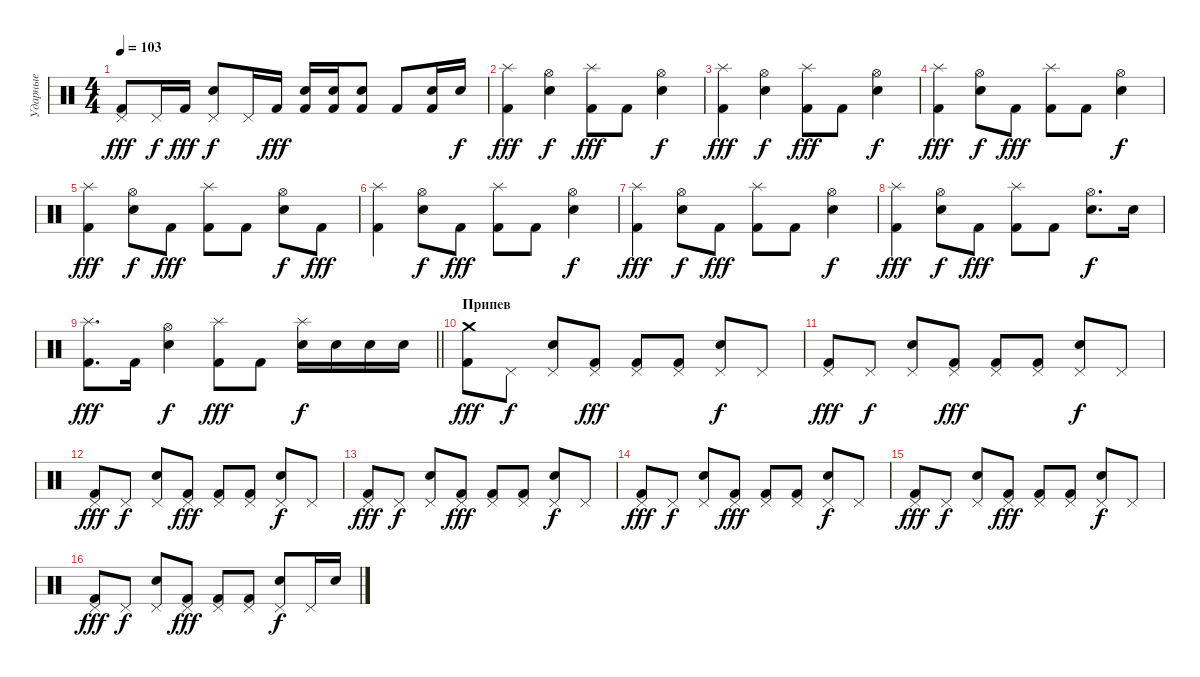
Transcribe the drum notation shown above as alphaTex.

\track ("Ударные" "Ударные") {instrument percussion}
\staff {score}
\articulation defaults
\ts (4 4)
\tempo 103
\clef neutral
\ks c
("Pedal Hi-Hat (hit)" "Kick (hit) 2").8{dy fff} "Pedal Hi-Hat (hit)".16{dy f} "Kick (hit) 2".16{dy fff} ("Pedal Hi-Hat (hit)" "Electric Snare (hit)").8{dy f} "Pedal Hi-Hat (hit)".16 "Kick (hit) 2".16{dy fff} ("Electric Snare (hit)" "Kick (hit) 2").16 ("Electric Snare (hit)" "Kick (hit) 2").16 ("Electric Snare (hit)" "Kick (hit) 2").8 "Kick (hit) 2".8 ("Electric Snare (hit)" "Kick (hit) 2").16 "Electric Snare (hit)".16{dy f} |
("Splash (hit)" "Kick (hit) 2").4{dy fff} ("Hi-Hat (open)" "Electric Snare (hit)").4{dy f} ("Splash (hit)" "Kick (hit) 2").8{dy fff} "Kick (hit) 2".8 ("Hi-Hat (open)" "Electric Snare (hit)").4{dy f} |
("Splash (hit)" "Kick (hit) 2").4{dy fff} ("Hi-Hat (open)" "Electric Snare (hit)").4{dy f} ("Splash (hit)" "Kick (hit) 2").8{dy fff} "Kick (hit) 2".8 ("Hi-Hat (open)" "Electric Snare (hit)").4{dy f} |
("Splash (hit)" "Kick (hit) 2").4{dy fff} ("Hi-Hat (open)" "Electric Snare (hit)").8{dy f} "Kick (hit) 2".8{dy fff} ("Splash (hit)" "Kick (hit) 2").8 "Kick (hit) 2".8 ("Hi-Hat (open)" "Electric Snare (hit)").4{dy f} |
("Splash (hit)" "Kick (hit) 2").4{dy fff} ("Hi-Hat (open)" "Electric Snare (hit)").8{dy f} "Kick (hit) 2".8{dy fff} ("Splash (hit)" "Kick (hit) 2").8 "Kick (hit) 2".8 ("Hi-Hat (open)" "Electric Snare (hit)").8{dy f} "Kick (hit) 2".8{dy fff} |
("Splash (hit)" "Kick (hit) 2").4 ("Hi-Hat (open)" "Electric Snare (hit)").8{dy f} "Kick (hit) 2".8{dy fff} ("Splash (hit)" "Kick (hit) 2").8 "Kick (hit) 2".8 ("Hi-Hat (open)" "Electric Snare (hit)").4{dy f} |
("Splash (hit)" "Kick (hit) 2").4{dy fff} ("Hi-Hat (open)" "Electric Snare (hit)").8{dy f} "Kick (hit) 2".8{dy fff} ("Splash (hit)" "Kick (hit) 2").8 "Kick (hit) 2".8 ("Hi-Hat (open)" "Electric Snare (hit)").4{dy f} |
("Splash (hit)" "Kick (hit) 2").4{dy fff} ("Hi-Hat (open)" "Electric Snare (hit)").8{dy f} "Kick (hit) 2".8{dy fff} ("Splash (hit)" "Kick (hit) 2").8 "Kick (hit) 2".8 ("Hi-Hat (open)" "Electric Snare (hit)").8{d dy f} "Electric Snare (hit)".16 |
\barLineRight lightlight
("Splash (hit)" "Kick (hit) 2").8{d dy fff} "Kick (hit) 2".16 ("Hi-Hat (open)" "Electric Snare (hit)").4{dy f} ("Splash (hit)" "Kick (hit) 2").8{dy fff} "Kick (hit) 2".8 ("Splash (hit)" "Electric Snare (hit)").16{dy f} "Electric Snare (hit)".16 "Electric Snare (hit)".16 "Electric Snare (hit)".16 |
\section ("" "Припев")
("Crash medium (hit)" "Kick (hit) 2").8{dy fff} "Pedal Hi-Hat (hit)".8{dy f} ("Pedal Hi-Hat (hit)" "Electric Snare (hit)").8 ("Pedal Hi-Hat (hit)" "Kick (hit) 2").8{dy fff} ("Pedal Hi-Hat (hit)" "Kick (hit) 2").8 ("Pedal Hi-Hat (hit)" "Kick (hit) 2").8 ("Pedal Hi-Hat (hit)" "Electric Snare (hit)").8{dy f} "Pedal Hi-Hat (hit)".8 |
("Pedal Hi-Hat (hit)" "Kick (hit) 2").8{dy fff} "Pedal Hi-Hat (hit)".8{dy f} ("Pedal Hi-Hat (hit)" "Electric Snare (hit)").8 ("Pedal Hi-Hat (hit)" "Kick (hit) 2").8{dy fff} ("Pedal Hi-Hat (hit)" "Kick (hit) 2").8 ("Pedal Hi-Hat (hit)" "Kick (hit) 2").8 ("Pedal Hi-Hat (hit)" "Electric Snare (hit)").8{dy f} "Pedal Hi-Hat (hit)".8 |
("Pedal Hi-Hat (hit)" "Kick (hit) 2").8{dy fff} "Pedal Hi-Hat (hit)".8{dy f} ("Pedal Hi-Hat (hit)" "Electric Snare (hit)").8 ("Pedal Hi-Hat (hit)" "Kick (hit) 2").8{dy fff} ("Pedal Hi-Hat (hit)" "Kick (hit) 2").8 ("Pedal Hi-Hat (hit)" "Kick (hit) 2").8 ("Pedal Hi-Hat (hit)" "Electric Snare (hit)").8{dy f} "Pedal Hi-Hat (hit)".8 |
("Pedal Hi-Hat (hit)" "Kick (hit) 2").8{dy fff} "Pedal Hi-Hat (hit)".8{dy f} ("Pedal Hi-Hat (hit)" "Electric Snare (hit)").8 ("Pedal Hi-Hat (hit)" "Kick (hit) 2").8{dy fff} ("Pedal Hi-Hat (hit)" "Kick (hit) 2").8 ("Pedal Hi-Hat (hit)" "Kick (hit) 2").8 ("Pedal Hi-Hat (hit)" "Electric Snare (hit)").8{dy f} "Pedal Hi-Hat (hit)".8 |
("Pedal Hi-Hat (hit)" "Kick (hit) 2").8{dy fff} "Pedal Hi-Hat (hit)".8{dy f} ("Pedal Hi-Hat (hit)" "Electric Snare (hit)").8 ("Pedal Hi-Hat (hit)" "Kick (hit) 2").8{dy fff} ("Pedal Hi-Hat (hit)" "Kick (hit) 2").8 ("Pedal Hi-Hat (hit)" "Kick (hit) 2").8 ("Pedal Hi-Hat (hit)" "Electric Snare (hit)").8{dy f} "Pedal Hi-Hat (hit)".8 |
("Pedal Hi-Hat (hit)" "Kick (hit) 2").8{dy fff} "Pedal Hi-Hat (hit)".8{dy f} ("Pedal Hi-Hat (hit)" "Electric Snare (hit)").8 ("Pedal Hi-Hat (hit)" "Kick (hit) 2").8{dy fff} ("Pedal Hi-Hat (hit)" "Kick (hit) 2").8 ("Pedal Hi-Hat (hit)" "Kick (hit) 2").8 ("Pedal Hi-Hat (hit)" "Electric Snare (hit)").8{dy f} "Pedal Hi-Hat (hit)".8 |
("Pedal Hi-Hat (hit)" "Kick (hit) 2").8{dy fff} "Pedal Hi-Hat (hit)".8{dy f} ("Pedal Hi-Hat (hit)" "Electric Snare (hit)").8 ("Pedal Hi-Hat (hit)" "Kick (hit) 2").8{dy fff} ("Pedal Hi-Hat (hit)" "Kick (hit) 2").8 ("Pedal Hi-Hat (hit)" "Kick (hit) 2").8 ("Pedal Hi-Hat (hit)" "Electric Snare (hit)").8{dy f} "Pedal Hi-Hat (hit)".16 "Electric Snare (hit)".16
